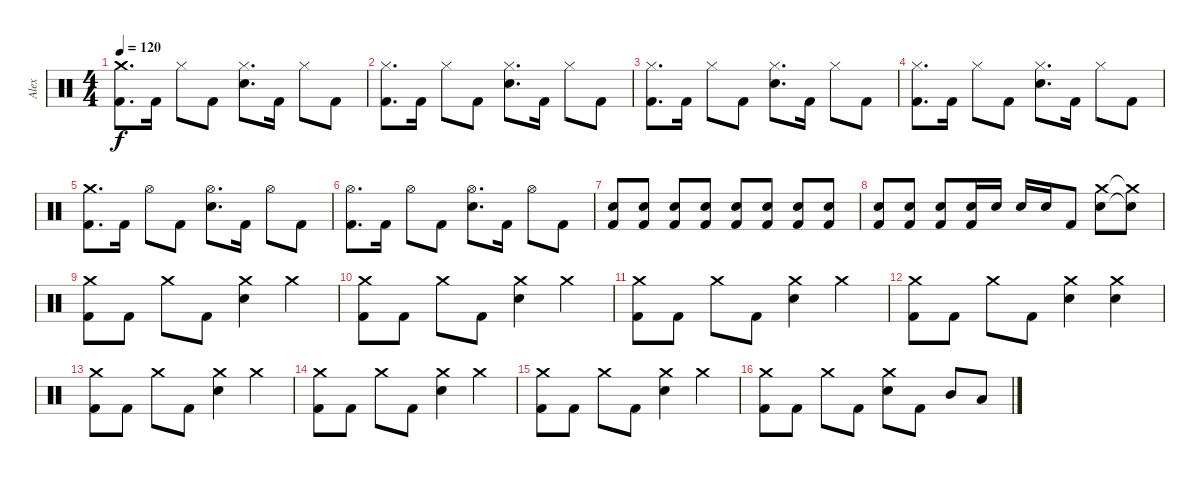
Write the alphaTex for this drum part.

\track ("Alex" "Alex") {instrument percussion}
\staff {score}
\articulation defaults
\ts (4 4)
\tempo 120
\clef neutral
\ks c
("Crash medium (hit)" "Kick (hit) 2").8{d dy f} "Kick (hit) 2".16 "Hi-Hat (closed)".8 "Kick (hit) 2".8 ("Hi-Hat (closed)" "Snare (hit) 2").8{d} "Kick (hit) 2".16 "Hi-Hat (closed)".8 "Kick (hit) 2".8 |
("Hi-Hat (closed)" "Kick (hit) 2").8{d} "Kick (hit) 2".16 "Hi-Hat (closed)".8 "Kick (hit) 2".8 ("Hi-Hat (closed)" "Snare (hit) 2").8{d} "Kick (hit) 2".16 "Hi-Hat (closed)".8 "Kick (hit) 2".8 |
("Hi-Hat (closed)" "Kick (hit) 2").8{d} "Kick (hit) 2".16 "Hi-Hat (closed)".8 "Kick (hit) 2".8 ("Hi-Hat (closed)" "Snare (hit) 2").8{d} "Kick (hit) 2".16 "Hi-Hat (closed)".8 "Kick (hit) 2".8 |
("Hi-Hat (closed)" "Kick (hit) 2").8{d} "Kick (hit) 2".16 "Hi-Hat (closed)".8 "Kick (hit) 2".8 ("Hi-Hat (closed)" "Snare (hit) 2").8{d} "Kick (hit) 2".16 "Hi-Hat (closed)".8 "Kick (hit) 2".8 |
("Crash medium (hit)" "Kick (hit) 2").8{d} "Kick (hit) 2".16 "Hi-Hat (open)".8 "Kick (hit) 2".8 ("Hi-Hat (open)" "Snare (hit) 2").8{d} "Kick (hit) 2".16 "Hi-Hat (open)".8 "Kick (hit) 2".8 |
("Hi-Hat (open)" "Kick (hit) 2").8{d} "Kick (hit) 2".16 "Hi-Hat (open)".8 "Kick (hit) 2".8 ("Hi-Hat (open)" "Snare (hit) 2").8{d} "Kick (hit) 2".16 "Hi-Hat (open)".8 "Kick (hit) 2".8 |
("Snare (hit) 2" "Kick (hit) 2").8 ("Snare (hit) 2" "Kick (hit) 2").8 ("Snare (hit) 2" "Kick (hit) 2").8 ("Snare (hit) 2" "Kick (hit) 2").8 ("Snare (hit) 2" "Kick (hit) 2").8 ("Snare (hit) 2" "Kick (hit) 2").8 ("Snare (hit) 2" "Kick (hit) 2").8 ("Snare (hit) 2" "Kick (hit) 2").8 |
("Snare (hit) 2" "Kick (hit) 2").8 ("Snare (hit) 2" "Kick (hit) 2").8 ("Snare (hit) 2" "Kick (hit) 2").8 ("Snare (hit) 2" "Kick (hit) 2").16 "Snare (hit) 2".16 "Snare (hit) 2".16 "Snare (hit) 2".16 "Kick (hit) 2".8 ("Crash medium (hit)" "Snare (hit) 2").8 ("Crash medium (hit)"{t} "Snare (hit) 2"{t}).8 |
("Crash medium (hit)" "Kick (hit) 2").8 "Kick (hit) 2".8 "Crash medium (hit)".8 "Kick (hit) 2".8 ("Crash medium (hit)" "Snare (hit) 2").4 "Crash medium (hit)".4 |
("Crash medium (hit)" "Kick (hit) 2").8 "Kick (hit) 2".8 "Crash medium (hit)".8 "Kick (hit) 2".8 ("Crash medium (hit)" "Snare (hit) 2").4 "Crash medium (hit)".4 |
("Crash medium (hit)" "Kick (hit) 2").8 "Kick (hit) 2".8 "Crash medium (hit)".8 "Kick (hit) 2".8 ("Crash medium (hit)" "Snare (hit) 2").4 "Crash medium (hit)".4 |
("Crash medium (hit)" "Kick (hit) 2").8 "Kick (hit) 2".8 "Crash medium (hit)".8 "Kick (hit) 2".8 ("Crash medium (hit)" "Snare (hit) 2").4 ("Crash medium (hit)" "Snare (hit) 2").4 |
("Crash medium (hit)" "Kick (hit) 2").8 "Kick (hit) 2".8 "Crash medium (hit)".8 "Kick (hit) 2".8 ("Crash medium (hit)" "Snare (hit) 2").4 "Crash medium (hit)".4 |
("Crash medium (hit)" "Kick (hit) 2").8 "Kick (hit) 2".8 "Crash medium (hit)".8 "Kick (hit) 2".8 ("Crash medium (hit)" "Snare (hit) 2").4 "Crash medium (hit)".4 |
("Crash medium (hit)" "Kick (hit) 2").8 "Kick (hit) 2".8 "Crash medium (hit)".8 "Kick (hit) 2".8 ("Crash medium (hit)" "Snare (hit) 2").4 "Crash medium (hit)".4 |
("Crash medium (hit)" "Kick (hit) 2").8 "Kick (hit) 2".8 "Crash medium (hit)".8 "Kick (hit) 2".8 ("Crash medium (hit)" "Snare (hit) 2").8 "Kick (hit) 2".8 "Mid Tom (hit)".8 "Low Tom (hit)".8
